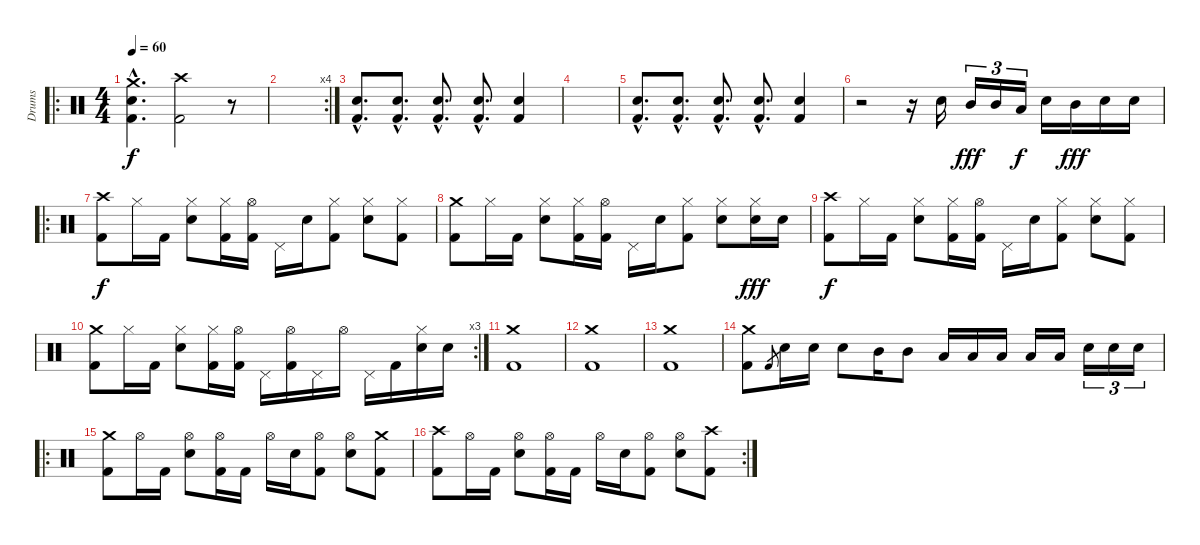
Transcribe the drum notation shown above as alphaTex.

\track ("Drums" "Drums") {instrument percussion}
\staff {score}
\articulation defaults
\ro
\ts (4 4)
\tempo 60
\clef neutral
\ks c
("Crash medium (hit)"{hac} "Electric Snare (hit)"{hac} "Kick (hit) 2"{hac}).4{d dy f} ("Crash high (hit)" "Kick (hit) 2").2 r.8 |
\rc 4
|
("Electric Snare (hit)"{hac} "Kick (hit) 2"{hac}).8{d} ("Electric Snare (hit)"{hac} "Kick (hit) 2"{hac}).8{d} ("Electric Snare (hit)"{hac} "Kick (hit) 2"{hac}).8{d} ("Electric Snare (hit)"{hac} "Kick (hit) 2"{hac}).8{d} ("Electric Snare (hit)" "Kick (hit) 2").4 |
|
("Electric Snare (hit)"{hac} "Kick (hit) 2"{hac}).8{d} ("Electric Snare (hit)"{hac} "Kick (hit) 2"{hac}).8{d} ("Electric Snare (hit)"{hac} "Kick (hit) 2"{hac}).8{d} ("Electric Snare (hit)"{hac} "Kick (hit) 2"{hac}).8{d} ("Electric Snare (hit)" "Kick (hit) 2").4 |
r.2 r.16 "Electric Snare (hit)".16 "Mid Tom (hit)".16{tu (3 2) dy fff} "Mid Tom (hit)".16{tu (3 2)} "Low Tom (hit)".16{tu (3 2) dy f} "Electric Snare (hit)".16 "Mid Tom (hit)".16{dy fff} "Electric Snare (hit)".16 "Electric Snare (hit)".16 |
\ro
("Crash high (hit)" "Kick (hit) 2").8{dy f} "Hi-Hat (closed)".16 "Kick (hit) 2".16 ("Hi-Hat (closed)" "Electric Snare (hit)").8 ("Hi-Hat (closed)" "Kick (hit) 2").16 ("Hi-Hat (open)" "Kick (hit) 2").16 "Pedal Hi-Hat (hit)".16 "Electric Snare (hit)".16 ("Hi-Hat (closed)" "Kick (hit) 2").8 ("Hi-Hat (closed)" "Electric Snare (hit)").8 ("Hi-Hat (closed)" "Kick (hit) 2").8 |
("Crash medium (hit)" "Kick (hit) 2").8 "Hi-Hat (closed)".16 "Kick (hit) 2".16 ("Hi-Hat (closed)" "Electric Snare (hit)").8 ("Hi-Hat (closed)" "Kick (hit) 2").16 ("Hi-Hat (open)" "Kick (hit) 2").16 "Pedal Hi-Hat (hit)".16 "Electric Snare (hit)".16 ("Hi-Hat (closed)" "Kick (hit) 2").8 ("Hi-Hat (closed)" "Electric Snare (hit)").8 ("Hi-Hat (closed)" "Electric Snare (hit)").16{dy fff} "Electric Snare (hit)".16 |
("Crash high (hit)" "Kick (hit) 2").8{dy f} "Hi-Hat (closed)".16 "Kick (hit) 2".16 ("Hi-Hat (closed)" "Electric Snare (hit)").8 ("Hi-Hat (closed)" "Kick (hit) 2").16 ("Hi-Hat (open)" "Kick (hit) 2").16 "Pedal Hi-Hat (hit)".16 "Electric Snare (hit)".16 ("Hi-Hat (closed)" "Kick (hit) 2").8 ("Hi-Hat (closed)" "Electric Snare (hit)").8 ("Hi-Hat (closed)" "Kick (hit) 2").8 |
\rc 3
("Crash medium (hit)" "Kick (hit) 2").8 "Hi-Hat (closed)".16 "Kick (hit) 2".16 ("Hi-Hat (closed)" "Electric Snare (hit)").8 ("Hi-Hat (closed)" "Kick (hit) 2").16 ("Hi-Hat (open)" "Kick (hit) 2").16 "Pedal Hi-Hat (hit)".16 ("Hi-Hat (open)" "Kick (hit) 2").16 "Pedal Hi-Hat (hit)".16 "Hi-Hat (open)".16 "Pedal Hi-Hat (hit)".16 "Kick (hit) 2".16 ("Hi-Hat (closed)" "Electric Snare (hit)").16 "Electric Snare (hit)".16 |
("Crash medium (hit)" "Kick (hit) 2").1 |
("Crash medium (hit)" "Kick (hit) 2").1 |
("Crash medium (hit)" "Kick (hit) 2").1 |
("Crash medium (hit)" "Kick (hit) 2").8 "Kick (hit) 2".8{gr} "Electric Snare (hit)".16 "Electric Snare (hit)".16 "Electric Snare (hit)".8 "Mid Tom (hit)".16 "Mid Tom (hit)".8 "Low Tom (hit)".16 "Low Tom (hit)".16 "Low Tom (hit)".16 "Low Tom (hit)".16 "Low Tom (hit)".16 "Electric Snare (hit)".16{tu (3 2)} "Electric Snare (hit)".16{tu (3 2)} "Electric Snare (hit)".16{tu (3 2)} |
\ro
("Crash medium (hit)" "Kick (hit) 2").8 "Hi-Hat (open)".16 "Kick (hit) 2".16 ("Hi-Hat (open)" "Electric Snare (hit)").8 ("Hi-Hat (open)" "Kick (hit) 2").16 "Kick (hit) 2".16 "Hi-Hat (open)".16 "Electric Snare (hit)".16 ("Hi-Hat (open)" "Kick (hit) 2").8 ("Hi-Hat (open)" "Electric Snare (hit)").8 ("Crash medium (hit)" "Kick (hit) 2").8 |
\rc 2
("Crash high (hit)" "Kick (hit) 2").8 "Hi-Hat (open)".16 "Kick (hit) 2".16 ("Hi-Hat (open)" "Electric Snare (hit)").8 ("Hi-Hat (open)" "Kick (hit) 2").16 "Kick (hit) 2".16 "Hi-Hat (open)".16 "Electric Snare (hit)".16 ("Hi-Hat (open)" "Kick (hit) 2").8 ("Hi-Hat (open)" "Electric Snare (hit)").8 ("Crash high (hit)" "Kick (hit) 2").8
